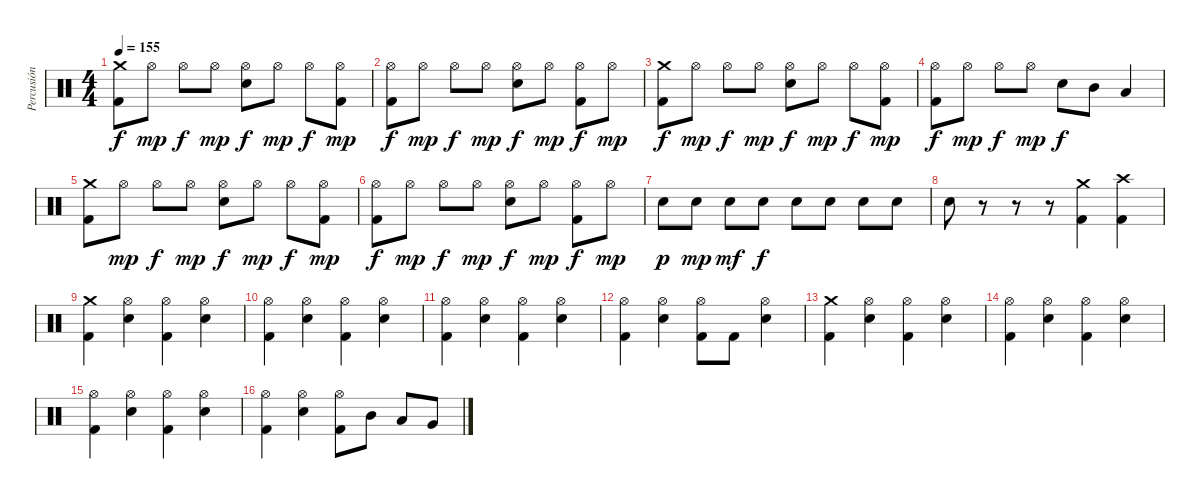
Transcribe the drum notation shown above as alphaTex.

\track ("Percusión" "Percusión") {instrument percussion}
\staff {score}
\articulation defaults
\ts (4 4)
\tempo 155
\clef neutral
\ks c
("Crash medium (hit)" "Kick (hit) 2").8{dy f} "Hi-Hat (open)".8{dy mp} "Hi-Hat (open)".8{dy f} "Hi-Hat (open)".8{dy mp} ("Hi-Hat (open)" "Electric Snare (hit)").8{dy f} "Hi-Hat (open)".8{dy mp} "Hi-Hat (open)".8{dy f} ("Hi-Hat (open)" "Kick (hit) 2").8{dy mp} |
("Hi-Hat (open)" "Kick (hit) 2").8{dy f} "Hi-Hat (open)".8{dy mp} "Hi-Hat (open)".8{dy f} "Hi-Hat (open)".8{dy mp} ("Hi-Hat (open)" "Electric Snare (hit)").8{dy f} "Hi-Hat (open)".8{dy mp} ("Hi-Hat (open)" "Kick (hit) 2").8{dy f} "Hi-Hat (open)".8{dy mp} |
("Crash medium (hit)" "Kick (hit) 2").8{dy f} "Hi-Hat (open)".8{dy mp} "Hi-Hat (open)".8{dy f} "Hi-Hat (open)".8{dy mp} ("Hi-Hat (open)" "Electric Snare (hit)").8{dy f} "Hi-Hat (open)".8{dy mp} "Hi-Hat (open)".8{dy f} ("Hi-Hat (open)" "Kick (hit) 2").8{dy mp} |
("Hi-Hat (open)" "Kick (hit) 2").8{dy f} "Hi-Hat (open)".8{dy mp} "Hi-Hat (open)".8{dy f} "Hi-Hat (open)".8{dy mp} "Electric Snare (hit)".8{dy f} "Mid Tom (hit)".8 "Low Tom (hit)".4 |
("Crash medium (hit)" "Kick (hit) 2").8 "Hi-Hat (open)".8{dy mp} "Hi-Hat (open)".8{dy f} "Hi-Hat (open)".8{dy mp} ("Hi-Hat (open)" "Electric Snare (hit)").8{dy f} "Hi-Hat (open)".8{dy mp} "Hi-Hat (open)".8{dy f} ("Hi-Hat (open)" "Kick (hit) 2").8{dy mp} |
("Hi-Hat (open)" "Kick (hit) 2").8{dy f} "Hi-Hat (open)".8{dy mp} "Hi-Hat (open)".8{dy f} "Hi-Hat (open)".8{dy mp} ("Hi-Hat (open)" "Electric Snare (hit)").8{dy f} "Hi-Hat (open)".8{dy mp} ("Hi-Hat (open)" "Kick (hit) 2").8{dy f} "Hi-Hat (open)".8{dy mp} |
"Electric Snare (hit)".8{dy p} "Electric Snare (hit)".8{dy mp} "Electric Snare (hit)".8{dy mf} "Electric Snare (hit)".8{dy f} "Electric Snare (hit)".8 "Electric Snare (hit)".8 "Electric Snare (hit)".8 "Electric Snare (hit)".8 |
"Electric Snare (hit)".8 r.8 r.8 r.8 ("Crash medium (hit)" "Kick (hit) 2").4 ("Crash high (hit)" "Kick (hit) 2").4 |
("Crash medium (hit)" "Kick (hit) 2").4 ("Hi-Hat (open)" "Electric Snare (hit)").4 ("Hi-Hat (open)" "Kick (hit) 2").4 ("Hi-Hat (open)" "Electric Snare (hit)").4 |
("Hi-Hat (open)" "Kick (hit) 2").4 ("Hi-Hat (open)" "Electric Snare (hit)").4 ("Hi-Hat (open)" "Kick (hit) 2").4 ("Hi-Hat (open)" "Electric Snare (hit)").4 |
("Hi-Hat (open)" "Kick (hit) 2").4 ("Hi-Hat (open)" "Electric Snare (hit)").4 ("Hi-Hat (open)" "Kick (hit) 2").4 ("Hi-Hat (open)" "Electric Snare (hit)").4 |
("Hi-Hat (open)" "Kick (hit) 2").4 ("Hi-Hat (open)" "Electric Snare (hit)").4 ("Hi-Hat (open)" "Kick (hit) 2").8 "Kick (hit) 2".8 ("Hi-Hat (open)" "Electric Snare (hit)").4 |
("Crash medium (hit)" "Kick (hit) 2").4 ("Hi-Hat (open)" "Electric Snare (hit)").4 ("Hi-Hat (open)" "Kick (hit) 2").4 ("Hi-Hat (open)" "Electric Snare (hit)").4 |
("Hi-Hat (open)" "Kick (hit) 2").4 ("Hi-Hat (open)" "Electric Snare (hit)").4 ("Hi-Hat (open)" "Kick (hit) 2").4 ("Hi-Hat (open)" "Electric Snare (hit)").4 |
("Hi-Hat (open)" "Kick (hit) 2").4 ("Hi-Hat (open)" "Electric Snare (hit)").4 ("Hi-Hat (open)" "Kick (hit) 2").4 ("Hi-Hat (open)" "Electric Snare (hit)").4 |
("Hi-Hat (open)" "Kick (hit) 2").4 ("Hi-Hat (open)" "Electric Snare (hit)").4 ("Hi-Hat (open)" "Kick (hit) 2").8 "Mid Tom (hit)".8 "Low Tom (hit)".8 "Very Low Tom (hit)".8
